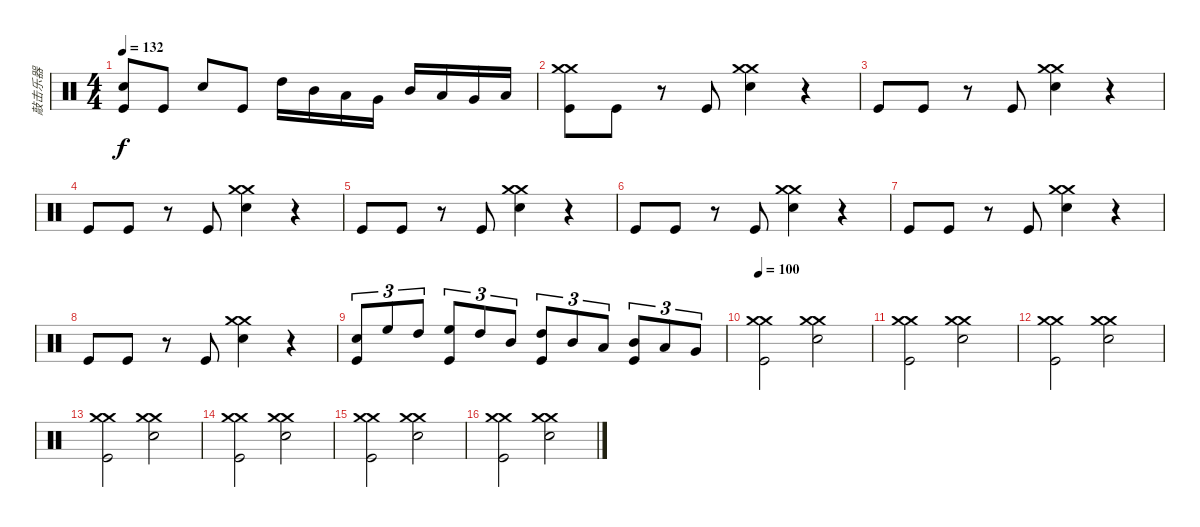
\track ("敲击乐器" "敲击乐器") {instrument percussion}
\staff {score}
\articulation defaults
\ts (4 4)
\tempo 132
\clef neutral
\ks c
("Snare (hit) 2" "Kick (hit)").8{dy f} "Kick (hit)".8 "Snare (hit) 2".8 "Kick (hit)".8 "High Tom (hit)".16 "Mid Tom (hit)".16 "Low Tom (hit)".16 "Very Low Tom (hit)".16 "Mid Tom (hit)".16 "Low Tom (hit)".16 "Very Low Tom (hit)".16 "Low Floor Tom (hit)".16 |
("Crash medium (hit)" "Crash medium (hit)" "Kick (hit)").8 "Kick (hit)".8 r.8 "Kick (hit)".8 ("Crash medium (hit)" "Crash medium (hit)" "Snare (hit) 2").4 r.4 |
"Kick (hit)".8 "Kick (hit)".8 r.8 "Kick (hit)".8 ("Crash medium (hit)" "Crash medium (hit)" "Snare (hit) 2").4 r.4 |
"Kick (hit)".8 "Kick (hit)".8 r.8 "Kick (hit)".8 ("Crash medium (hit)" "Crash medium (hit)" "Snare (hit) 2").4 r.4 |
"Kick (hit)".8 "Kick (hit)".8 r.8 "Kick (hit)".8 ("Crash medium (hit)" "Crash medium (hit)" "Snare (hit) 2").4 r.4 |
"Kick (hit)".8 "Kick (hit)".8 r.8 "Kick (hit)".8 ("Crash medium (hit)" "Crash medium (hit)" "Snare (hit) 2").4 r.4 |
"Kick (hit)".8 "Kick (hit)".8 r.8 "Kick (hit)".8 ("Crash medium (hit)" "Crash medium (hit)" "Snare (hit) 2").4 r.4 |
"Kick (hit)".8 "Kick (hit)".8 r.8 "Kick (hit)".8 ("Crash medium (hit)" "Crash medium (hit)" "Snare (hit) 2").4 r.4 |
("Snare (hit) 2" "Kick (hit)").8{tu (3 2)} "High Floor Tom (hit)".8{tu (3 2)} "High Tom (hit)".8{tu (3 2)} ("High Floor Tom (hit)" "Kick (hit)").8{tu (3 2)} "High Tom (hit)".8{tu (3 2)} "Mid Tom (hit)".8{tu (3 2)} ("High Tom (hit)" "Kick (hit)").8{tu (3 2)} "Mid Tom (hit)".8{tu (3 2)} "Low Tom (hit)".8{tu (3 2)} ("Mid Tom (hit)" "Kick (hit)").8{tu (3 2)} "Low Tom (hit)".8{tu (3 2)} "Very Low Tom (hit)".8{tu (3 2)} |
\tempo 100
("Crash medium (hit)" "Crash medium (hit)" "Kick (hit)").2 ("Crash medium (hit)" "Crash medium (hit)" "Snare (hit) 2").2 |
("Crash medium (hit)" "Crash medium (hit)" "Kick (hit)").2 ("Crash medium (hit)" "Crash medium (hit)" "Snare (hit) 2").2 |
("Crash medium (hit)" "Crash medium (hit)" "Kick (hit)").2 ("Crash medium (hit)" "Crash medium (hit)" "Snare (hit) 2").2 |
("Crash medium (hit)" "Crash medium (hit)" "Kick (hit)").2 ("Crash medium (hit)" "Crash medium (hit)" "Snare (hit) 2").2 |
("Crash medium (hit)" "Crash medium (hit)" "Kick (hit)").2 ("Crash medium (hit)" "Crash medium (hit)" "Snare (hit) 2").2 |
("Crash medium (hit)" "Crash medium (hit)" "Kick (hit)").2 ("Crash medium (hit)" "Crash medium (hit)" "Snare (hit) 2").2 |
("Crash medium (hit)" "Crash medium (hit)" "Kick (hit)").2 ("Crash medium (hit)" "Crash medium (hit)" "Snare (hit) 2").2
